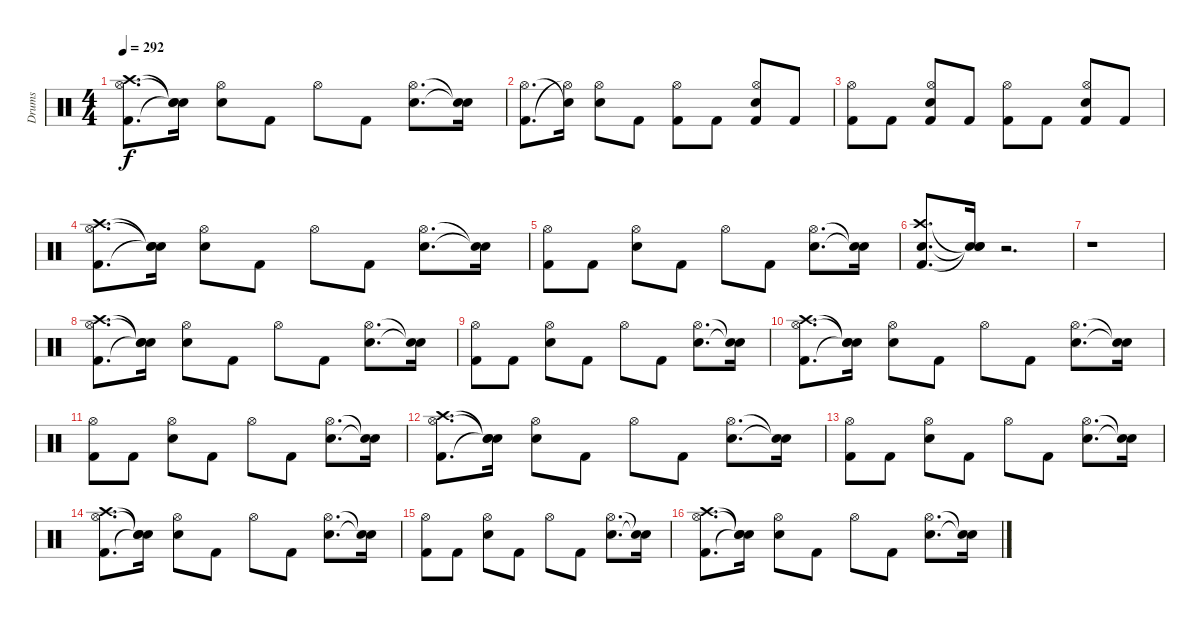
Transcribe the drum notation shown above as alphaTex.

\track ("Drums" "Drums") {instrument percussion}
\staff {score}
\articulation defaults
\ts (4 4)
\tempo 292
\clef neutral
\ks c
("Kick (hit) 2" "Hi-Hat (open)" "Crash high (hit)").8{d dy f} ("Snare (hit)"{t} "Snare (hit)"{t} "Snare (hit)"{t}).16 ("Snare (hit) 2" "Hi-Hat (open)").8 "Kick (hit) 2".8 "Hi-Hat (open)".8 "Kick (hit) 2".8 ("Snare (hit) 2" "Hi-Hat (open)").8{d} ("Snare (hit)"{t} "Snare (hit)"{t}).16 |
("Kick (hit) 2" "Hi-Hat (open)").8{d} ("Hi-Hat (open)"{t} "Snare (hit)"{t}).16 ("Snare (hit) 2" "Hi-Hat (open)").8 "Kick (hit) 2".8 ("Kick (hit) 2" "Hi-Hat (open)").8 "Kick (hit) 2".8 ("Kick (hit) 2" "Snare (hit) 2" "Hi-Hat (open)").8 "Kick (hit) 2".8 |
("Kick (hit) 2" "Hi-Hat (open)").8 "Kick (hit) 2".8 ("Kick (hit) 2" "Snare (hit) 2" "Hi-Hat (open)").8 "Kick (hit) 2".8 ("Kick (hit) 2" "Hi-Hat (open)").8 "Kick (hit) 2".8 ("Kick (hit) 2" "Snare (hit) 2" "Hi-Hat (open)").8 "Kick (hit) 2".8 |
("Kick (hit) 2" "Hi-Hat (open)" "Crash high (hit)").8{d} ("Snare (hit)"{t} "Snare (hit)"{t} "Snare (hit)"{t}).16 ("Snare (hit) 2" "Hi-Hat (open)").8 "Kick (hit) 2".8 "Hi-Hat (open)".8 "Kick (hit) 2".8 ("Snare (hit) 2" "Hi-Hat (open)").8{d} ("Snare (hit)"{t} "Snare (hit)"{t}).16 |
("Kick (hit) 2" "Hi-Hat (open)").8 "Kick (hit) 2".8 ("Snare (hit) 2" "Hi-Hat (open)").8 "Kick (hit) 2".8 "Hi-Hat (open)".8 "Kick (hit) 2".8 ("Snare (hit) 2" "Hi-Hat (open)").8{d} ("Snare (hit)"{t} "Snare (hit)"{t}).16 |
("Kick (hit) 2" "Snare (hit) 2" "Crash high (hit)").8{d} ("Snare (hit)"{t} "Snare (hit)"{t} "Snare (hit)"{t}).16 r.2{d} |
r.1 |
("Kick (hit) 2" "Hi-Hat (open)" "Crash high (hit)").8{d} ("Snare (hit)"{t} "Snare (hit)"{t} "Snare (hit)"{t}).16 ("Snare (hit) 2" "Hi-Hat (open)").8 "Kick (hit) 2".8 "Hi-Hat (open)".8 "Kick (hit) 2".8 ("Snare (hit) 2" "Hi-Hat (open)").8{d} ("Snare (hit)"{t} "Snare (hit)"{t}).16 |
("Kick (hit) 2" "Hi-Hat (open)").8 "Kick (hit) 2".8 ("Snare (hit) 2" "Hi-Hat (open)").8 "Kick (hit) 2".8 "Hi-Hat (open)".8 "Kick (hit) 2".8 ("Snare (hit) 2" "Hi-Hat (open)").8{d} ("Snare (hit)"{t} "Snare (hit)"{t}).16 |
("Kick (hit) 2" "Hi-Hat (open)" "Crash high (hit)").8{d} ("Snare (hit)"{t} "Snare (hit)"{t} "Snare (hit)"{t}).16 ("Snare (hit) 2" "Hi-Hat (open)").8 "Kick (hit) 2".8 "Hi-Hat (open)".8 "Kick (hit) 2".8 ("Snare (hit) 2" "Hi-Hat (open)").8{d} ("Snare (hit)"{t} "Snare (hit)"{t}).16 |
("Kick (hit) 2" "Hi-Hat (open)").8 "Kick (hit) 2".8 ("Snare (hit) 2" "Hi-Hat (open)").8 "Kick (hit) 2".8 "Hi-Hat (open)".8 "Kick (hit) 2".8 ("Snare (hit) 2" "Hi-Hat (open)").8{d} ("Snare (hit)"{t} "Snare (hit)"{t}).16 |
("Kick (hit) 2" "Hi-Hat (open)" "Crash high (hit)").8{d} ("Snare (hit)"{t} "Snare (hit)"{t} "Snare (hit)"{t}).16 ("Snare (hit) 2" "Hi-Hat (open)").8 "Kick (hit) 2".8 "Hi-Hat (open)".8 "Kick (hit) 2".8 ("Snare (hit) 2" "Hi-Hat (open)").8{d} ("Snare (hit)"{t} "Snare (hit)"{t}).16 |
("Kick (hit) 2" "Hi-Hat (open)").8 "Kick (hit) 2".8 ("Snare (hit) 2" "Hi-Hat (open)").8 "Kick (hit) 2".8 "Hi-Hat (open)".8 "Kick (hit) 2".8 ("Snare (hit) 2" "Hi-Hat (open)").8{d} ("Snare (hit)"{t} "Snare (hit)"{t}).16 |
("Kick (hit) 2" "Hi-Hat (open)" "Crash high (hit)").8{d} ("Snare (hit)"{t} "Snare (hit)"{t} "Snare (hit)"{t}).16 ("Snare (hit) 2" "Hi-Hat (open)").8 "Kick (hit) 2".8 "Hi-Hat (open)".8 "Kick (hit) 2".8 ("Snare (hit) 2" "Hi-Hat (open)").8{d} ("Snare (hit)"{t} "Snare (hit)"{t}).16 |
("Kick (hit) 2" "Hi-Hat (open)").8 "Kick (hit) 2".8 ("Snare (hit) 2" "Hi-Hat (open)").8 "Kick (hit) 2".8 "Hi-Hat (open)".8 "Kick (hit) 2".8 ("Snare (hit) 2" "Hi-Hat (open)").8{d} ("Snare (hit)"{t} "Snare (hit)"{t}).16 |
("Kick (hit) 2" "Hi-Hat (open)" "Crash high (hit)").8{d} ("Snare (hit)"{t} "Snare (hit)"{t} "Snare (hit)"{t}).16 ("Snare (hit) 2" "Hi-Hat (open)").8 "Kick (hit) 2".8 "Hi-Hat (open)".8 "Kick (hit) 2".8 ("Snare (hit) 2" "Hi-Hat (open)").8{d} ("Snare (hit)"{t} "Snare (hit)"{t}).16
